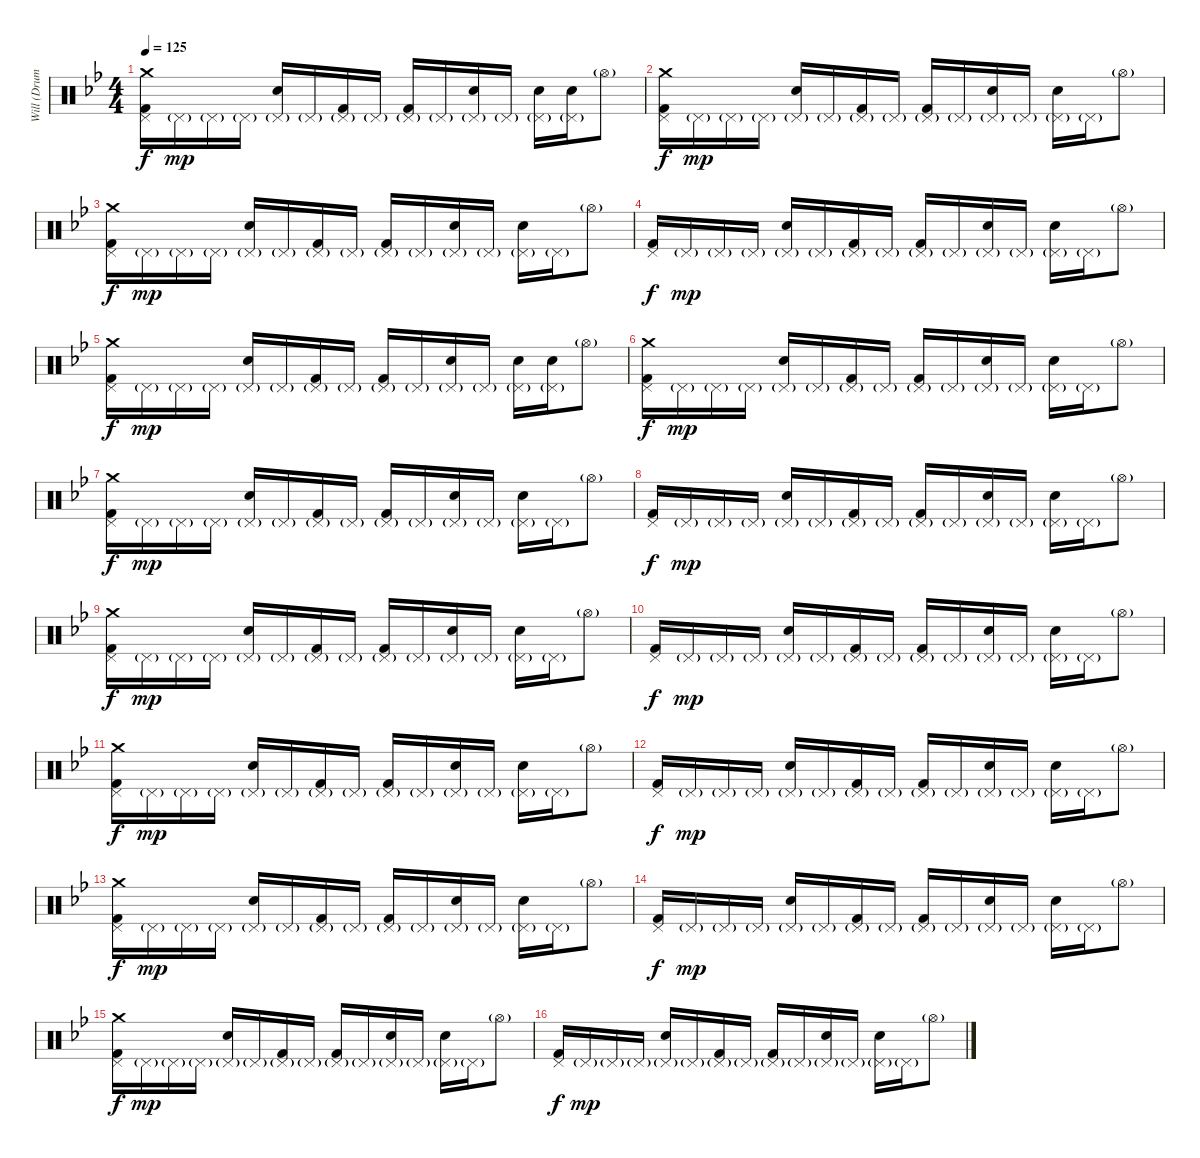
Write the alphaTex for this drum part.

\track ("Will (Drums)" "Will (Drum") {instrument percussion}
\staff {score}
\articulation defaults
\ts (4 4)
\tempo 125
\clef neutral
\ks bb
("Kick (hit) 2" "Pedal Hi-Hat (hit)" "Crash medium (hit)").16{dy f} "Pedal Hi-Hat (hit)"{g}.16{dy mp} "Pedal Hi-Hat (hit)"{g}.16 "Pedal Hi-Hat (hit)"{g}.16 ("Snare (hit) 2" "Pedal Hi-Hat (hit)"{g}).16 "Pedal Hi-Hat (hit)"{g}.16 ("Kick (hit) 2" "Pedal Hi-Hat (hit)"{g}).16 "Pedal Hi-Hat (hit)"{g}.16 ("Kick (hit) 2" "Pedal Hi-Hat (hit)"{g}).16 "Pedal Hi-Hat (hit)"{g}.16 ("Snare (hit) 2" "Pedal Hi-Hat (hit)"{g}).16 "Pedal Hi-Hat (hit)"{g}.16 ("Snare (hit) 2" "Pedal Hi-Hat (hit)"{g}).16 ("Snare (hit) 2" "Pedal Hi-Hat (hit)"{g}).16 "Hi-Hat (open)"{g}.8 |
("Kick (hit) 2" "Pedal Hi-Hat (hit)" "Crash medium (hit)").16{dy f} "Pedal Hi-Hat (hit)"{g}.16{dy mp} "Pedal Hi-Hat (hit)"{g}.16 "Pedal Hi-Hat (hit)"{g}.16 ("Snare (hit) 2" "Pedal Hi-Hat (hit)"{g}).16 "Pedal Hi-Hat (hit)"{g}.16 ("Kick (hit) 2" "Pedal Hi-Hat (hit)"{g}).16 "Pedal Hi-Hat (hit)"{g}.16 ("Kick (hit) 2" "Pedal Hi-Hat (hit)"{g}).16 "Pedal Hi-Hat (hit)"{g}.16 ("Snare (hit) 2" "Pedal Hi-Hat (hit)"{g}).16 "Pedal Hi-Hat (hit)"{g}.16 ("Snare (hit) 2" "Pedal Hi-Hat (hit)"{g}).16 "Pedal Hi-Hat (hit)"{g}.16 "Hi-Hat (open)"{g}.8 |
("Kick (hit) 2" "Pedal Hi-Hat (hit)" "Crash medium (hit)").16{dy f} "Pedal Hi-Hat (hit)"{g}.16{dy mp} "Pedal Hi-Hat (hit)"{g}.16 "Pedal Hi-Hat (hit)"{g}.16 ("Snare (hit) 2" "Pedal Hi-Hat (hit)"{g}).16 "Pedal Hi-Hat (hit)"{g}.16 ("Kick (hit) 2" "Pedal Hi-Hat (hit)"{g}).16 "Pedal Hi-Hat (hit)"{g}.16 ("Kick (hit) 2" "Pedal Hi-Hat (hit)"{g}).16 "Pedal Hi-Hat (hit)"{g}.16 ("Snare (hit) 2" "Pedal Hi-Hat (hit)"{g}).16 "Pedal Hi-Hat (hit)"{g}.16 ("Snare (hit) 2" "Pedal Hi-Hat (hit)"{g}).16 "Pedal Hi-Hat (hit)"{g}.16 "Hi-Hat (open)"{g}.8 |
("Kick (hit) 2" "Pedal Hi-Hat (hit)").16{dy f} "Pedal Hi-Hat (hit)"{g}.16{dy mp} "Pedal Hi-Hat (hit)"{g}.16 "Pedal Hi-Hat (hit)"{g}.16 ("Snare (hit) 2" "Pedal Hi-Hat (hit)"{g}).16 "Pedal Hi-Hat (hit)"{g}.16 ("Kick (hit) 2" "Pedal Hi-Hat (hit)"{g}).16 "Pedal Hi-Hat (hit)"{g}.16 ("Kick (hit) 2" "Pedal Hi-Hat (hit)"{g}).16 "Pedal Hi-Hat (hit)"{g}.16 ("Snare (hit) 2" "Pedal Hi-Hat (hit)"{g}).16 "Pedal Hi-Hat (hit)"{g}.16 ("Snare (hit) 2" "Pedal Hi-Hat (hit)"{g}).16 "Pedal Hi-Hat (hit)"{g}.16 "Hi-Hat (open)"{g}.8 |
("Kick (hit) 2" "Pedal Hi-Hat (hit)" "Crash medium (hit)").16{dy f} "Pedal Hi-Hat (hit)"{g}.16{dy mp} "Pedal Hi-Hat (hit)"{g}.16 "Pedal Hi-Hat (hit)"{g}.16 ("Snare (hit) 2" "Pedal Hi-Hat (hit)"{g}).16 "Pedal Hi-Hat (hit)"{g}.16 ("Kick (hit) 2" "Pedal Hi-Hat (hit)"{g}).16 "Pedal Hi-Hat (hit)"{g}.16 ("Kick (hit) 2" "Pedal Hi-Hat (hit)"{g}).16 "Pedal Hi-Hat (hit)"{g}.16 ("Snare (hit) 2" "Pedal Hi-Hat (hit)"{g}).16 "Pedal Hi-Hat (hit)"{g}.16 ("Snare (hit) 2" "Pedal Hi-Hat (hit)"{g}).16 ("Snare (hit) 2" "Pedal Hi-Hat (hit)"{g}).16 "Hi-Hat (open)"{g}.8 |
("Kick (hit) 2" "Pedal Hi-Hat (hit)" "Crash medium (hit)").16{dy f} "Pedal Hi-Hat (hit)"{g}.16{dy mp} "Pedal Hi-Hat (hit)"{g}.16 "Pedal Hi-Hat (hit)"{g}.16 ("Snare (hit) 2" "Pedal Hi-Hat (hit)"{g}).16 "Pedal Hi-Hat (hit)"{g}.16 ("Kick (hit) 2" "Pedal Hi-Hat (hit)"{g}).16 "Pedal Hi-Hat (hit)"{g}.16 ("Kick (hit) 2" "Pedal Hi-Hat (hit)"{g}).16 "Pedal Hi-Hat (hit)"{g}.16 ("Snare (hit) 2" "Pedal Hi-Hat (hit)"{g}).16 "Pedal Hi-Hat (hit)"{g}.16 ("Snare (hit) 2" "Pedal Hi-Hat (hit)"{g}).16 "Pedal Hi-Hat (hit)"{g}.16 "Hi-Hat (open)"{g}.8 |
("Kick (hit) 2" "Pedal Hi-Hat (hit)" "Crash medium (hit)").16{dy f} "Pedal Hi-Hat (hit)"{g}.16{dy mp} "Pedal Hi-Hat (hit)"{g}.16 "Pedal Hi-Hat (hit)"{g}.16 ("Snare (hit) 2" "Pedal Hi-Hat (hit)"{g}).16 "Pedal Hi-Hat (hit)"{g}.16 ("Kick (hit) 2" "Pedal Hi-Hat (hit)"{g}).16 "Pedal Hi-Hat (hit)"{g}.16 ("Kick (hit) 2" "Pedal Hi-Hat (hit)"{g}).16 "Pedal Hi-Hat (hit)"{g}.16 ("Snare (hit) 2" "Pedal Hi-Hat (hit)"{g}).16 "Pedal Hi-Hat (hit)"{g}.16 ("Snare (hit) 2" "Pedal Hi-Hat (hit)"{g}).16 "Pedal Hi-Hat (hit)"{g}.16 "Hi-Hat (open)"{g}.8 |
("Kick (hit) 2" "Pedal Hi-Hat (hit)").16{dy f} "Pedal Hi-Hat (hit)"{g}.16{dy mp} "Pedal Hi-Hat (hit)"{g}.16 "Pedal Hi-Hat (hit)"{g}.16 ("Snare (hit) 2" "Pedal Hi-Hat (hit)"{g}).16 "Pedal Hi-Hat (hit)"{g}.16 ("Kick (hit) 2" "Pedal Hi-Hat (hit)"{g}).16 "Pedal Hi-Hat (hit)"{g}.16 ("Kick (hit) 2" "Pedal Hi-Hat (hit)"{g}).16 "Pedal Hi-Hat (hit)"{g}.16 ("Snare (hit) 2" "Pedal Hi-Hat (hit)"{g}).16 "Pedal Hi-Hat (hit)"{g}.16 ("Snare (hit) 2" "Pedal Hi-Hat (hit)"{g}).16 "Pedal Hi-Hat (hit)"{g}.16 "Hi-Hat (open)"{g}.8 |
("Kick (hit) 2" "Pedal Hi-Hat (hit)" "Crash medium (hit)").16{dy f} "Pedal Hi-Hat (hit)"{g}.16{dy mp} "Pedal Hi-Hat (hit)"{g}.16 "Pedal Hi-Hat (hit)"{g}.16 ("Snare (hit) 2" "Pedal Hi-Hat (hit)"{g}).16 "Pedal Hi-Hat (hit)"{g}.16 ("Kick (hit) 2" "Pedal Hi-Hat (hit)"{g}).16 "Pedal Hi-Hat (hit)"{g}.16 ("Kick (hit) 2" "Pedal Hi-Hat (hit)"{g}).16 "Pedal Hi-Hat (hit)"{g}.16 ("Snare (hit) 2" "Pedal Hi-Hat (hit)"{g}).16 "Pedal Hi-Hat (hit)"{g}.16 ("Snare (hit) 2" "Pedal Hi-Hat (hit)"{g}).16 "Pedal Hi-Hat (hit)"{g}.16 "Hi-Hat (open)"{g}.8 |
("Kick (hit) 2" "Pedal Hi-Hat (hit)").16{dy f} "Pedal Hi-Hat (hit)"{g}.16{dy mp} "Pedal Hi-Hat (hit)"{g}.16 "Pedal Hi-Hat (hit)"{g}.16 ("Snare (hit) 2" "Pedal Hi-Hat (hit)"{g}).16 "Pedal Hi-Hat (hit)"{g}.16 ("Kick (hit) 2" "Pedal Hi-Hat (hit)"{g}).16 "Pedal Hi-Hat (hit)"{g}.16 ("Kick (hit) 2" "Pedal Hi-Hat (hit)"{g}).16 "Pedal Hi-Hat (hit)"{g}.16 ("Snare (hit) 2" "Pedal Hi-Hat (hit)"{g}).16 "Pedal Hi-Hat (hit)"{g}.16 ("Snare (hit) 2" "Pedal Hi-Hat (hit)"{g}).16 "Pedal Hi-Hat (hit)"{g}.16 "Hi-Hat (open)"{g}.8 |
("Kick (hit) 2" "Pedal Hi-Hat (hit)" "Crash medium (hit)").16{dy f} "Pedal Hi-Hat (hit)"{g}.16{dy mp} "Pedal Hi-Hat (hit)"{g}.16 "Pedal Hi-Hat (hit)"{g}.16 ("Snare (hit) 2" "Pedal Hi-Hat (hit)"{g}).16 "Pedal Hi-Hat (hit)"{g}.16 ("Kick (hit) 2" "Pedal Hi-Hat (hit)"{g}).16 "Pedal Hi-Hat (hit)"{g}.16 ("Kick (hit) 2" "Pedal Hi-Hat (hit)"{g}).16 "Pedal Hi-Hat (hit)"{g}.16 ("Snare (hit) 2" "Pedal Hi-Hat (hit)"{g}).16 "Pedal Hi-Hat (hit)"{g}.16 ("Snare (hit) 2" "Pedal Hi-Hat (hit)"{g}).16 "Pedal Hi-Hat (hit)"{g}.16 "Hi-Hat (open)"{g}.8 |
("Kick (hit) 2" "Pedal Hi-Hat (hit)").16{dy f} "Pedal Hi-Hat (hit)"{g}.16{dy mp} "Pedal Hi-Hat (hit)"{g}.16 "Pedal Hi-Hat (hit)"{g}.16 ("Snare (hit) 2" "Pedal Hi-Hat (hit)"{g}).16 "Pedal Hi-Hat (hit)"{g}.16 ("Kick (hit) 2" "Pedal Hi-Hat (hit)"{g}).16 "Pedal Hi-Hat (hit)"{g}.16 ("Kick (hit) 2" "Pedal Hi-Hat (hit)"{g}).16 "Pedal Hi-Hat (hit)"{g}.16 ("Snare (hit) 2" "Pedal Hi-Hat (hit)"{g}).16 "Pedal Hi-Hat (hit)"{g}.16 ("Snare (hit) 2" "Pedal Hi-Hat (hit)"{g}).16 "Pedal Hi-Hat (hit)"{g}.16 "Hi-Hat (open)"{g}.8 |
("Kick (hit) 2" "Pedal Hi-Hat (hit)" "Crash medium (hit)").16{dy f} "Pedal Hi-Hat (hit)"{g}.16{dy mp} "Pedal Hi-Hat (hit)"{g}.16 "Pedal Hi-Hat (hit)"{g}.16 ("Snare (hit) 2" "Pedal Hi-Hat (hit)"{g}).16 "Pedal Hi-Hat (hit)"{g}.16 ("Kick (hit) 2" "Pedal Hi-Hat (hit)"{g}).16 "Pedal Hi-Hat (hit)"{g}.16 ("Kick (hit) 2" "Pedal Hi-Hat (hit)"{g}).16 "Pedal Hi-Hat (hit)"{g}.16 ("Snare (hit) 2" "Pedal Hi-Hat (hit)"{g}).16 "Pedal Hi-Hat (hit)"{g}.16 ("Snare (hit) 2" "Pedal Hi-Hat (hit)"{g}).16 "Pedal Hi-Hat (hit)"{g}.16 "Hi-Hat (open)"{g}.8 |
("Kick (hit) 2" "Pedal Hi-Hat (hit)").16{dy f} "Pedal Hi-Hat (hit)"{g}.16{dy mp} "Pedal Hi-Hat (hit)"{g}.16 "Pedal Hi-Hat (hit)"{g}.16 ("Snare (hit) 2" "Pedal Hi-Hat (hit)"{g}).16 "Pedal Hi-Hat (hit)"{g}.16 ("Kick (hit) 2" "Pedal Hi-Hat (hit)"{g}).16 "Pedal Hi-Hat (hit)"{g}.16 ("Kick (hit) 2" "Pedal Hi-Hat (hit)"{g}).16 "Pedal Hi-Hat (hit)"{g}.16 ("Snare (hit) 2" "Pedal Hi-Hat (hit)"{g}).16 "Pedal Hi-Hat (hit)"{g}.16 ("Snare (hit) 2" "Pedal Hi-Hat (hit)"{g}).16 "Pedal Hi-Hat (hit)"{g}.16 "Hi-Hat (open)"{g}.8 |
("Kick (hit) 2" "Pedal Hi-Hat (hit)" "Crash medium (hit)").16{dy f} "Pedal Hi-Hat (hit)"{g}.16{dy mp} "Pedal Hi-Hat (hit)"{g}.16 "Pedal Hi-Hat (hit)"{g}.16 ("Snare (hit) 2" "Pedal Hi-Hat (hit)"{g}).16 "Pedal Hi-Hat (hit)"{g}.16 ("Kick (hit) 2" "Pedal Hi-Hat (hit)"{g}).16 "Pedal Hi-Hat (hit)"{g}.16 ("Kick (hit) 2" "Pedal Hi-Hat (hit)"{g}).16 "Pedal Hi-Hat (hit)"{g}.16 ("Snare (hit) 2" "Pedal Hi-Hat (hit)"{g}).16 "Pedal Hi-Hat (hit)"{g}.16 ("Snare (hit) 2" "Pedal Hi-Hat (hit)"{g}).16 "Pedal Hi-Hat (hit)"{g}.16 "Hi-Hat (open)"{g}.8 |
("Kick (hit) 2" "Pedal Hi-Hat (hit)").16{dy f} "Pedal Hi-Hat (hit)"{g}.16{dy mp} "Pedal Hi-Hat (hit)"{g}.16 "Pedal Hi-Hat (hit)"{g}.16 ("Snare (hit) 2" "Pedal Hi-Hat (hit)"{g}).16 "Pedal Hi-Hat (hit)"{g}.16 ("Kick (hit) 2" "Pedal Hi-Hat (hit)"{g}).16 "Pedal Hi-Hat (hit)"{g}.16 ("Kick (hit) 2" "Pedal Hi-Hat (hit)"{g}).16 "Pedal Hi-Hat (hit)"{g}.16 ("Snare (hit) 2" "Pedal Hi-Hat (hit)"{g}).16 "Pedal Hi-Hat (hit)"{g}.16 ("Snare (hit) 2" "Pedal Hi-Hat (hit)"{g}).16 "Pedal Hi-Hat (hit)"{g}.16 "Hi-Hat (open)"{g}.8
